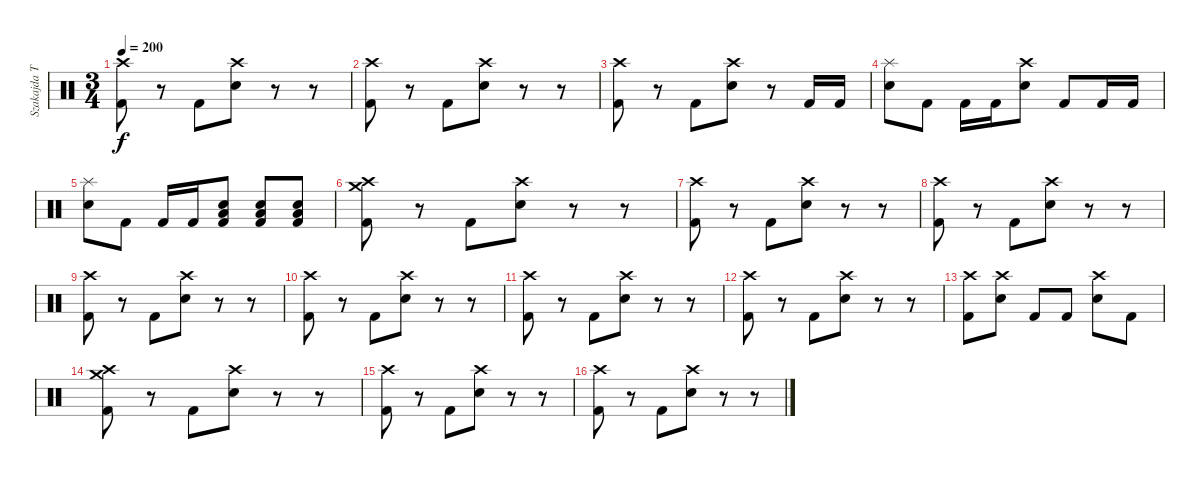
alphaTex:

\track ("Szakajda Tibi" "Szakajda T") {instrument percussion}
\staff {score}
\articulation defaults
\ts (3 4)
\tempo 200
\clef neutral
\ks c
("Crash high (hit)" "Kick (hit) 2").8{dy f} r.8 "Kick (hit) 2".8 ("Crash high (hit)" "Electric Snare (hit)").8 r.8 r.8 |
("Crash high (hit)" "Kick (hit) 2").8 r.8 "Kick (hit) 2".8 ("Crash high (hit)" "Electric Snare (hit)").8 r.8 r.8 |
("Crash high (hit)" "Kick (hit) 2").8 r.8 "Kick (hit) 2".8 ("Crash high (hit)" "Electric Snare (hit)").8 r.8 "Kick (hit) 2".16 "Kick (hit) 2".16 |
("Splash (hit)" "Electric Snare (hit)").8 "Kick (hit) 2".8 "Kick (hit) 2".16 "Kick (hit) 2".16 ("Crash high (hit)" "Electric Snare (hit)").8 "Kick (hit) 2".8 "Kick (hit) 2".16 "Kick (hit) 2".16 |
("Splash (hit)" "Electric Snare (hit)").8 "Kick (hit) 2".8 "Kick (hit) 2".16 "Kick (hit) 2".16 ("Low Floor Tom (hit)" "Electric Snare (hit)" "Kick (hit) 2").8 ("Low Floor Tom (hit)" "Electric Snare (hit)" "Kick (hit) 2").8 ("Low Floor Tom (hit)" "Electric Snare (hit)" "Kick (hit) 2").8 |
("Crash high (hit)" "Crash medium (hit)" "Kick (hit) 2").8 r.8 "Kick (hit) 2".8 ("Crash high (hit)" "Electric Snare (hit)").8 r.8 r.8 |
("Crash high (hit)" "Kick (hit) 2").8 r.8 "Kick (hit) 2".8 ("Crash high (hit)" "Electric Snare (hit)").8 r.8 r.8 |
("Crash high (hit)" "Kick (hit) 2").8 r.8 "Kick (hit) 2".8 ("Crash high (hit)" "Electric Snare (hit)").8 r.8 r.8 |
("Crash high (hit)" "Kick (hit) 2").8 r.8 "Kick (hit) 2".8 ("Crash high (hit)" "Electric Snare (hit)").8 r.8 r.8 |
("Crash high (hit)" "Kick (hit) 2").8 r.8 "Kick (hit) 2".8 ("Crash high (hit)" "Electric Snare (hit)").8 r.8 r.8 |
("Crash high (hit)" "Kick (hit) 2").8 r.8 "Kick (hit) 2".8 ("Crash high (hit)" "Electric Snare (hit)").8 r.8 r.8 |
("Crash high (hit)" "Kick (hit) 2").8 r.8 "Kick (hit) 2".8 ("Crash high (hit)" "Electric Snare (hit)").8 r.8 r.8 |
("Crash high (hit)" "Kick (hit) 2").8 ("Crash high (hit)" "Electric Snare (hit)").8 "Kick (hit) 2".8 "Kick (hit) 2".8 ("Crash high (hit)" "Electric Snare (hit)").8 "Kick (hit) 2".8 |
("Crash high (hit)" "Crash medium (hit)" "Kick (hit) 2").8 r.8 "Kick (hit) 2".8 ("Crash high (hit)" "Electric Snare (hit)").8 r.8 r.8 |
("Crash high (hit)" "Kick (hit) 2").8 r.8 "Kick (hit) 2".8 ("Crash high (hit)" "Electric Snare (hit)").8 r.8 r.8 |
("Crash high (hit)" "Kick (hit) 2").8 r.8 "Kick (hit) 2".8 ("Crash high (hit)" "Electric Snare (hit)").8 r.8 r.8
